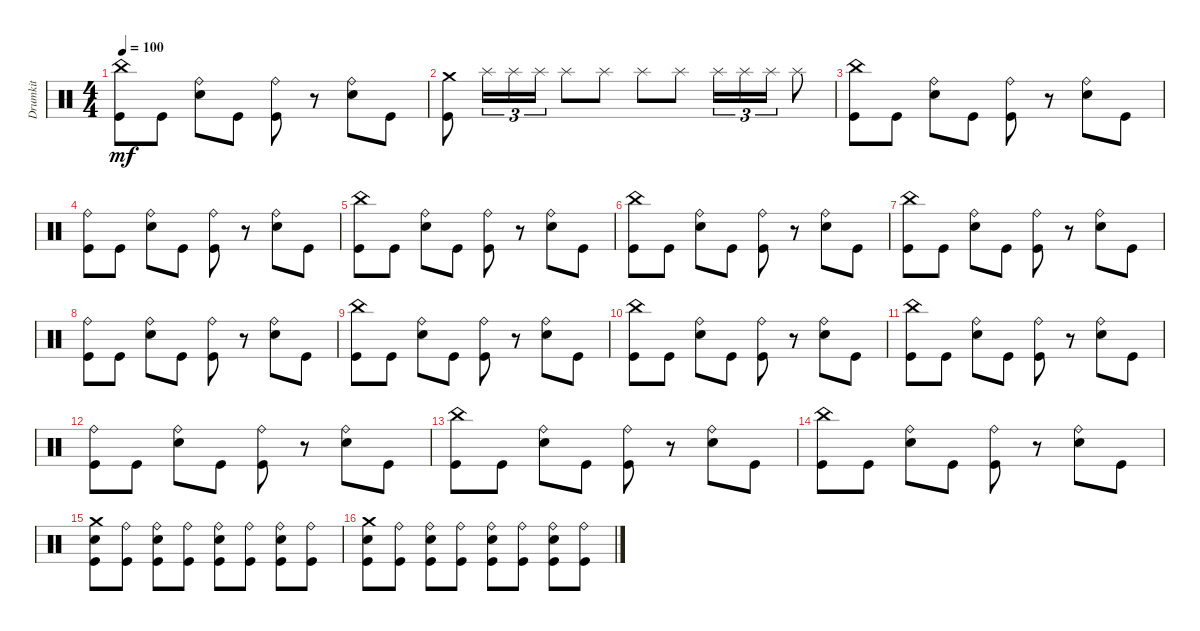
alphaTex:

\track ("Drumkit" "Drumkit") {instrument percussion}
\staff {score}
\articulation defaults
\ts (4 4)
\tempo 100
\clef neutral
\ks c
("Kick (hit)" "China (hit)").8{dy mf} "Kick (hit)".8 ("Snare (hit) 2" "Ride (bell)").8 "Kick (hit)".8 ("Kick (hit)" "Ride (bell)").8 r.8 ("Snare (hit) 2" "Ride (bell)").8 "Kick (hit)".8 |
("Crash medium (hit)" "Kick (hit)").8 "Splash (hit)".16{tu (3 2)} "Splash (hit)".16{tu (3 2)} "Splash (hit)".16{tu (3 2)} "Splash (hit)".8 "Splash (hit)".8 "Splash (hit)".8 "Splash (hit)".8 "Splash (hit)".16{tu (3 2)} "Splash (hit)".16{tu (3 2)} "Splash (hit)".16{tu (3 2)} "Splash (hit)".8 |
("Kick (hit)" "China (hit)").8 "Kick (hit)".8 ("Snare (hit) 2" "Ride (bell)").8 "Kick (hit)".8 ("Kick (hit)" "Ride (bell)").8 r.8 ("Snare (hit) 2" "Ride (bell)").8 "Kick (hit)".8 |
("Kick (hit)" "Ride (bell)").8 "Kick (hit)".8 ("Snare (hit) 2" "Ride (bell)").8 "Kick (hit)".8 ("Kick (hit)" "Ride (bell)").8 r.8 ("Snare (hit) 2" "Ride (bell)").8 "Kick (hit)".8 |
("Kick (hit)" "China (hit)").8 "Kick (hit)".8 ("Snare (hit) 2" "Ride (bell)").8 "Kick (hit)".8 ("Kick (hit)" "Ride (bell)").8 r.8 ("Snare (hit) 2" "Ride (bell)").8 "Kick (hit)".8 |
("Kick (hit)" "China (hit)").8 "Kick (hit)".8 ("Snare (hit) 2" "Ride (bell)").8 "Kick (hit)".8 ("Kick (hit)" "Ride (bell)").8 r.8 ("Snare (hit) 2" "Ride (bell)").8 "Kick (hit)".8 |
("Kick (hit)" "China (hit)").8 "Kick (hit)".8 ("Snare (hit) 2" "Ride (bell)").8 "Kick (hit)".8 ("Kick (hit)" "Ride (bell)").8 r.8 ("Snare (hit) 2" "Ride (bell)").8 "Kick (hit)".8 |
("Kick (hit)" "Ride (bell)").8 "Kick (hit)".8 ("Snare (hit) 2" "Ride (bell)").8 "Kick (hit)".8 ("Kick (hit)" "Ride (bell)").8 r.8 ("Snare (hit) 2" "Ride (bell)").8 "Kick (hit)".8 |
("Kick (hit)" "China (hit)").8 "Kick (hit)".8 ("Snare (hit) 2" "Ride (bell)").8 "Kick (hit)".8 ("Kick (hit)" "Ride (bell)").8 r.8 ("Snare (hit) 2" "Ride (bell)").8 "Kick (hit)".8 |
("Kick (hit)" "China (hit)").8 "Kick (hit)".8 ("Snare (hit) 2" "Ride (bell)").8 "Kick (hit)".8 ("Kick (hit)" "Ride (bell)").8 r.8 ("Snare (hit) 2" "Ride (bell)").8 "Kick (hit)".8 |
("Kick (hit)" "China (hit)").8 "Kick (hit)".8 ("Snare (hit) 2" "Ride (bell)").8 "Kick (hit)".8 ("Kick (hit)" "Ride (bell)").8 r.8 ("Snare (hit) 2" "Ride (bell)").8 "Kick (hit)".8 |
("Kick (hit)" "Ride (bell)").8 "Kick (hit)".8 ("Snare (hit) 2" "Ride (bell)").8 "Kick (hit)".8 ("Kick (hit)" "Ride (bell)").8 r.8 ("Snare (hit) 2" "Ride (bell)").8 "Kick (hit)".8 |
("Kick (hit)" "China (hit)").8 "Kick (hit)".8 ("Snare (hit) 2" "Ride (bell)").8 "Kick (hit)".8 ("Kick (hit)" "Ride (bell)").8 r.8 ("Snare (hit) 2" "Ride (bell)").8 "Kick (hit)".8 |
("Kick (hit)" "China (hit)").8 "Kick (hit)".8 ("Snare (hit) 2" "Ride (bell)").8 "Kick (hit)".8 ("Kick (hit)" "Ride (bell)").8 r.8 ("Snare (hit) 2" "Ride (bell)").8 "Kick (hit)".8 |
("Snare (hit) 2" "Kick (hit)" "Crash medium (hit)").8 ("Kick (hit)" "Ride (bell)").8 ("Snare (hit) 2" "Kick (hit)" "Ride (bell)").8 ("Kick (hit)" "Ride (bell)").8 ("Kick (hit)" "Snare (hit) 2" "Ride (bell)").8 ("Kick (hit)" "Ride (bell)").8 ("Kick (hit)" "Snare (hit) 2" "Ride (bell)").8 ("Kick (hit)" "Ride (bell)").8 |
("Snare (hit) 2" "Kick (hit)" "Crash medium (hit)").8 ("Kick (hit)" "Ride (bell)").8 ("Snare (hit) 2" "Kick (hit)" "Ride (bell)").8 ("Kick (hit)" "Ride (bell)").8 ("Kick (hit)" "Snare (hit) 2" "Ride (bell)").8 ("Kick (hit)" "Ride (bell)").8 ("Kick (hit)" "Snare (hit) 2" "Ride (bell)").8 ("Kick (hit)" "Ride (bell)").8
